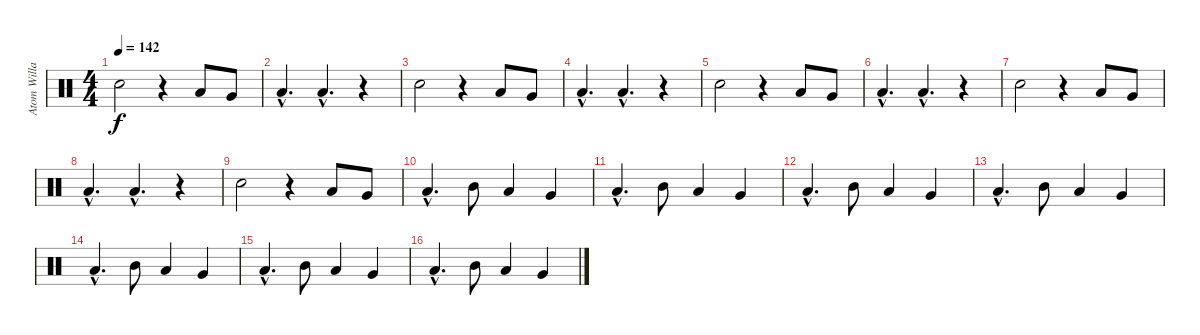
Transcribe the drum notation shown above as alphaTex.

\track ("Atom Willard" "Atom Willa") {instrument percussion}
\staff {score}
\articulation defaults
\ts (4 4)
\tempo 142
\clef neutral
\ks c "Electric Snare (hit)".2{dy f}
r.4 "Low Tom (hit)".8 "Very Low Tom (hit)".8 |
"Low Tom (hit)"{hac}.4{d} "Low Tom (hit)"{hac}.4{d} r.4 |
"Electric Snare (hit)".2 r.4 "Low Tom (hit)".8 "Very Low Tom (hit)".8 |
"Low Tom (hit)"{hac}.4{d} "Low Tom (hit)"{hac}.4{d} r.4 |
"Electric Snare (hit)".2 r.4 "Low Tom (hit)".8 "Very Low Tom (hit)".8 |
"Low Tom (hit)"{hac}.4{d} "Low Tom (hit)"{hac}.4{d} r.4 |
"Electric Snare (hit)".2 r.4 "Low Tom (hit)".8 "Very Low Tom (hit)".8 |
"Low Tom (hit)"{hac}.4{d} "Low Tom (hit)"{hac}.4{d} r.4 |
"Electric Snare (hit)".2 r.4 "Low Tom (hit)".8 "Very Low Tom (hit)".8 |
"Low Tom (hit)"{hac}.4{d} "Mid Tom (hit)".8 "Low Tom (hit)".4 "Very Low Tom (hit)".4 |
"Low Tom (hit)"{hac}.4{d} "Mid Tom (hit)".8 "Low Tom (hit)".4 "Very Low Tom (hit)".4 |
"Low Tom (hit)"{hac}.4{d} "Mid Tom (hit)".8 "Low Tom (hit)".4 "Very Low Tom (hit)".4 |
"Low Tom (hit)"{hac}.4{d} "Mid Tom (hit)".8 "Low Tom (hit)".4 "Very Low Tom (hit)".4 |
"Low Tom (hit)"{hac}.4{d} "Mid Tom (hit)".8 "Low Tom (hit)".4 "Very Low Tom (hit)".4 |
"Low Tom (hit)"{hac}.4{d} "Mid Tom (hit)".8 "Low Tom (hit)".4 "Very Low Tom (hit)".4 |
"Low Tom (hit)"{hac}.4{d} "Mid Tom (hit)".8 "Low Tom (hit)".4 "Very Low Tom (hit)".4
